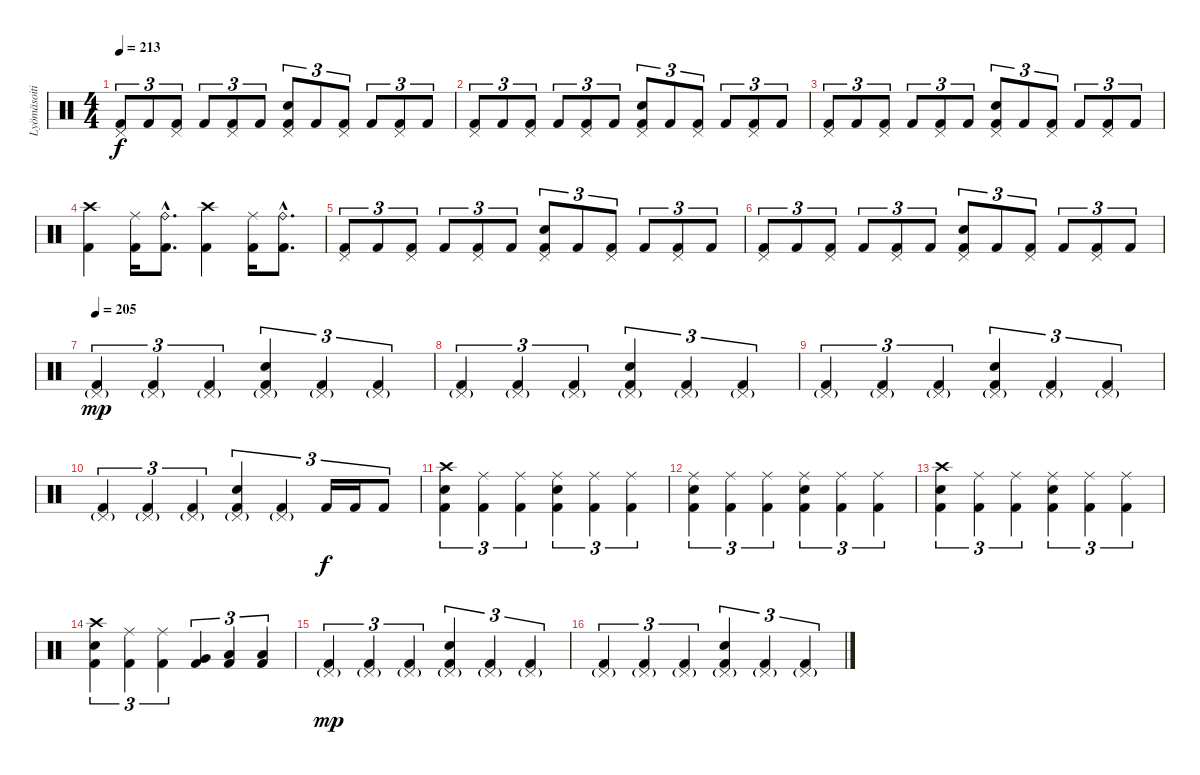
\track ("Lyömäsoitin" "Lyömäsoiti") {instrument percussion}
\staff {score}
\articulation defaults
\ts (4 4)
\tempo 213
\clef neutral
\ks c
("Pedal Hi-Hat (hit)" "Kick (hit) 2").8{tu (3 2) dy f} "Kick (hit) 2".8{tu (3 2)} ("Pedal Hi-Hat (hit)" "Kick (hit) 2").8{tu (3 2)} "Kick (hit) 2".8{tu (3 2)} ("Pedal Hi-Hat (hit)" "Kick (hit) 2").8{tu (3 2)} "Kick (hit) 2".8{tu (3 2)} ("Pedal Hi-Hat (hit)" "Electric Snare (hit)" "Kick (hit) 2").8{tu (3 2)} "Kick (hit) 2".8{tu (3 2)} ("Pedal Hi-Hat (hit)" "Kick (hit) 2").8{tu (3 2)} "Kick (hit) 2".8{tu (3 2)} ("Pedal Hi-Hat (hit)" "Kick (hit) 2").8{tu (3 2)} "Kick (hit) 2".8{tu (3 2)} |
("Pedal Hi-Hat (hit)" "Kick (hit) 2").8{tu (3 2)} "Kick (hit) 2".8{tu (3 2)} ("Pedal Hi-Hat (hit)" "Kick (hit) 2").8{tu (3 2)} "Kick (hit) 2".8{tu (3 2)} ("Pedal Hi-Hat (hit)" "Kick (hit) 2").8{tu (3 2)} "Kick (hit) 2".8{tu (3 2)} ("Pedal Hi-Hat (hit)" "Electric Snare (hit)" "Kick (hit) 2").8{tu (3 2)} "Kick (hit) 2".8{tu (3 2)} ("Pedal Hi-Hat (hit)" "Kick (hit) 2").8{tu (3 2)} "Kick (hit) 2".8{tu (3 2)} ("Pedal Hi-Hat (hit)" "Kick (hit) 2").8{tu (3 2)} "Kick (hit) 2".8{tu (3 2)} |
("Pedal Hi-Hat (hit)" "Kick (hit) 2").8{tu (3 2)} "Kick (hit) 2".8{tu (3 2)} ("Pedal Hi-Hat (hit)" "Kick (hit) 2").8{tu (3 2)} "Kick (hit) 2".8{tu (3 2)} ("Pedal Hi-Hat (hit)" "Kick (hit) 2").8{tu (3 2)} "Kick (hit) 2".8{tu (3 2)} ("Pedal Hi-Hat (hit)" "Electric Snare (hit)" "Kick (hit) 2").8{tu (3 2)} "Kick (hit) 2".8{tu (3 2)} ("Pedal Hi-Hat (hit)" "Kick (hit) 2").8{tu (3 2)} "Kick (hit) 2".8{tu (3 2)} ("Pedal Hi-Hat (hit)" "Kick (hit) 2").8{tu (3 2)} "Kick (hit) 2".8{tu (3 2)} |
("Crash high (hit)" "Kick (hit) 2").4 ("Ride (middle)" "Kick (hit) 2").16 ("Ride (bell)"{hac} "Kick (hit) 2"{hac}).8{d} ("Crash high (hit)" "Kick (hit) 2").4 ("Ride (middle)" "Kick (hit) 2").16 ("Ride (bell)"{hac} "Kick (hit) 2"{hac}).8{d} |
("Pedal Hi-Hat (hit)" "Kick (hit) 2").8{tu (3 2)} "Kick (hit) 2".8{tu (3 2)} ("Pedal Hi-Hat (hit)" "Kick (hit) 2").8{tu (3 2)} "Kick (hit) 2".8{tu (3 2)} ("Pedal Hi-Hat (hit)" "Kick (hit) 2").8{tu (3 2)} "Kick (hit) 2".8{tu (3 2)} ("Pedal Hi-Hat (hit)" "Electric Snare (hit)" "Kick (hit) 2").8{tu (3 2)} "Kick (hit) 2".8{tu (3 2)} ("Pedal Hi-Hat (hit)" "Kick (hit) 2").8{tu (3 2)} "Kick (hit) 2".8{tu (3 2)} ("Pedal Hi-Hat (hit)" "Kick (hit) 2").8{tu (3 2)} "Kick (hit) 2".8{tu (3 2)} |
("Pedal Hi-Hat (hit)" "Kick (hit) 2").8{tu (3 2)} "Kick (hit) 2".8{tu (3 2)} ("Pedal Hi-Hat (hit)" "Kick (hit) 2").8{tu (3 2)} "Kick (hit) 2".8{tu (3 2)} ("Pedal Hi-Hat (hit)" "Kick (hit) 2").8{tu (3 2)} "Kick (hit) 2".8{tu (3 2)} ("Pedal Hi-Hat (hit)" "Electric Snare (hit)" "Kick (hit) 2").8{tu (3 2)} "Kick (hit) 2".8{tu (3 2)} ("Pedal Hi-Hat (hit)" "Kick (hit) 2").8{tu (3 2)} "Kick (hit) 2".8{tu (3 2)} ("Pedal Hi-Hat (hit)" "Kick (hit) 2").8{tu (3 2)} "Kick (hit) 2".8{tu (3 2)} |
\tempo 205
("Pedal Hi-Hat (hit)"{g} "Kick (hit) 2").4{tu (3 2) dy mp} ("Pedal Hi-Hat (hit)"{g} "Kick (hit) 2").4{tu (3 2)} ("Pedal Hi-Hat (hit)"{g} "Kick (hit) 2").4{tu (3 2)} ("Pedal Hi-Hat (hit)"{g} "Electric Snare (hit)" "Kick (hit) 2").4{tu (3 2)} ("Pedal Hi-Hat (hit)"{g} "Kick (hit) 2").4{tu (3 2)} ("Pedal Hi-Hat (hit)"{g} "Kick (hit) 2").4{tu (3 2)} |
("Pedal Hi-Hat (hit)"{g} "Kick (hit) 2").4{tu (3 2)} ("Pedal Hi-Hat (hit)"{g} "Kick (hit) 2").4{tu (3 2)} ("Pedal Hi-Hat (hit)"{g} "Kick (hit) 2").4{tu (3 2)} ("Pedal Hi-Hat (hit)"{g} "Electric Snare (hit)" "Kick (hit) 2").4{tu (3 2)} ("Pedal Hi-Hat (hit)"{g} "Kick (hit) 2").4{tu (3 2)} ("Pedal Hi-Hat (hit)"{g} "Kick (hit) 2").4{tu (3 2)} |
("Pedal Hi-Hat (hit)"{g} "Kick (hit) 2").4{tu (3 2)} ("Pedal Hi-Hat (hit)"{g} "Kick (hit) 2").4{tu (3 2)} ("Pedal Hi-Hat (hit)"{g} "Kick (hit) 2").4{tu (3 2)} ("Pedal Hi-Hat (hit)"{g} "Electric Snare (hit)" "Kick (hit) 2").4{tu (3 2)} ("Pedal Hi-Hat (hit)"{g} "Kick (hit) 2").4{tu (3 2)} ("Pedal Hi-Hat (hit)"{g} "Kick (hit) 2").4{tu (3 2)} |
("Pedal Hi-Hat (hit)"{g} "Kick (hit) 2").4{tu (3 2)} ("Pedal Hi-Hat (hit)"{g} "Kick (hit) 2").4{tu (3 2)} ("Pedal Hi-Hat (hit)"{g} "Kick (hit) 2").4{tu (3 2)} ("Pedal Hi-Hat (hit)"{g} "Electric Snare (hit)" "Kick (hit) 2").4{tu (3 2)} ("Pedal Hi-Hat (hit)"{g} "Kick (hit) 2").4{tu (3 2)} "Kick (hit) 2".16{tu (3 2) dy f} "Kick (hit) 2".16{tu (3 2)} "Kick (hit) 2".8{tu (3 2)} |
("Crash high (hit)" "Electric Snare (hit)" "Kick (hit) 2").4{tu (3 2)} ("Ride (middle)" "Kick (hit) 2").4{tu (3 2)} ("Ride (middle)" "Kick (hit) 2").4{tu (3 2)} ("Ride (middle)" "Electric Snare (hit)" "Kick (hit) 2").4{tu (3 2)} ("Ride (middle)" "Kick (hit) 2").4{tu (3 2)} ("Ride (middle)" "Kick (hit) 2").4{tu (3 2)} |
("Ride (middle)" "Electric Snare (hit)" "Kick (hit) 2").4{tu (3 2)} ("Ride (middle)" "Kick (hit) 2").4{tu (3 2)} ("Ride (middle)" "Kick (hit) 2").4{tu (3 2)} ("Ride (middle)" "Electric Snare (hit)" "Kick (hit) 2").4{tu (3 2)} ("Ride (middle)" "Kick (hit) 2").4{tu (3 2)} ("Ride (middle)" "Kick (hit) 2").4{tu (3 2)} |
("Crash high (hit)" "Electric Snare (hit)" "Kick (hit) 2").4{tu (3 2)} ("Ride (middle)" "Kick (hit) 2").4{tu (3 2)} ("Ride (middle)" "Kick (hit) 2").4{tu (3 2)} ("Ride (middle)" "Electric Snare (hit)" "Kick (hit) 2").4{tu (3 2)} ("Ride (middle)" "Kick (hit) 2").4{tu (3 2)} ("Ride (middle)" "Kick (hit) 2").4{tu (3 2)} |
("Crash high (hit)" "Electric Snare (hit)" "Kick (hit) 2").4{tu (3 2)} ("Ride (middle)" "Kick (hit) 2").4{tu (3 2)} ("Ride (middle)" "Kick (hit) 2").4{tu (3 2)} ("Very Low Tom (hit)" "Kick (hit) 2").4{tu (3 2)} ("Low Floor Tom (hit)" "Kick (hit) 2").4{tu (3 2)} ("Low Floor Tom (hit)" "Kick (hit) 2").4{tu (3 2)} |
("Pedal Hi-Hat (hit)"{g} "Kick (hit) 2").4{tu (3 2) dy mp} ("Pedal Hi-Hat (hit)"{g} "Kick (hit) 2").4{tu (3 2)} ("Pedal Hi-Hat (hit)"{g} "Kick (hit) 2").4{tu (3 2)} ("Pedal Hi-Hat (hit)"{g} "Electric Snare (hit)" "Kick (hit) 2").4{tu (3 2)} ("Pedal Hi-Hat (hit)"{g} "Kick (hit) 2").4{tu (3 2)} ("Pedal Hi-Hat (hit)"{g} "Kick (hit) 2").4{tu (3 2)} |
("Pedal Hi-Hat (hit)"{g} "Kick (hit) 2").4{tu (3 2)} ("Pedal Hi-Hat (hit)"{g} "Kick (hit) 2").4{tu (3 2)} ("Pedal Hi-Hat (hit)"{g} "Kick (hit) 2").4{tu (3 2)} ("Pedal Hi-Hat (hit)"{g} "Electric Snare (hit)" "Kick (hit) 2").4{tu (3 2)} ("Pedal Hi-Hat (hit)"{g} "Kick (hit) 2").4{tu (3 2)} ("Pedal Hi-Hat (hit)"{g} "Kick (hit) 2").4{tu (3 2)}
